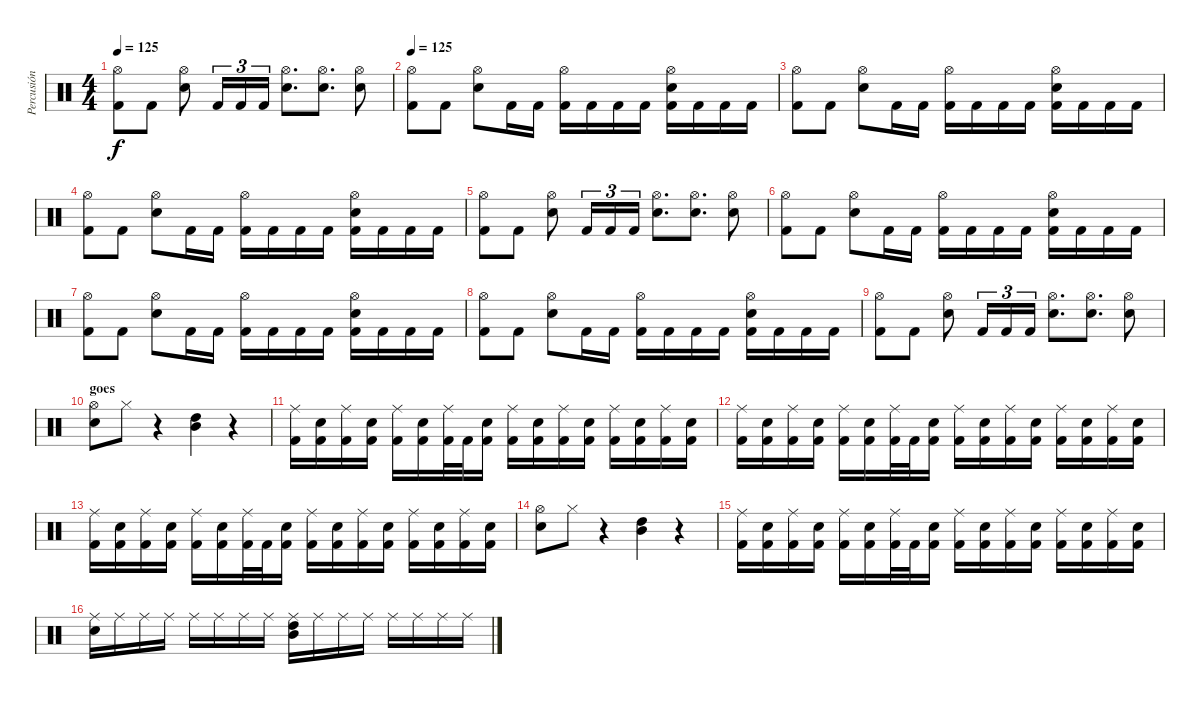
\track ("Percusión" "Percusión") {instrument percussion}
\staff {score}
\articulation defaults
\ts (4 4)
\tempo 125
\clef neutral
\ks c
("Hi-Hat (open)" "Kick (hit) 2").8{dy f} "Kick (hit) 2".8 ("Hi-Hat (open)" "Electric Snare (hit)").8 "Kick (hit) 2".16{tu (3 2)} "Kick (hit) 2".16{tu (3 2)} "Kick (hit) 2".16{tu (3 2)} ("Hi-Hat (open)" "Electric Snare (hit)").8{d} ("Hi-Hat (open)" "Electric Snare (hit)").8{d} ("Hi-Hat (open)" "Electric Snare (hit)").8 |
\tempo 125
("Hi-Hat (open)" "Kick (hit) 2").8 "Kick (hit) 2".8 ("Hi-Hat (open)" "Electric Snare (hit)").8 "Kick (hit) 2".16 "Kick (hit) 2".16 ("Hi-Hat (open)" "Kick (hit) 2").16 "Kick (hit) 2".16 "Kick (hit) 2".16 "Kick (hit) 2".16 ("Hi-Hat (open)" "Electric Snare (hit)" "Kick (hit) 2").16 "Kick (hit) 2".16 "Kick (hit) 2".16 "Kick (hit) 2".16 |
("Hi-Hat (open)" "Kick (hit) 2").8 "Kick (hit) 2".8 ("Hi-Hat (open)" "Electric Snare (hit)").8 "Kick (hit) 2".16 "Kick (hit) 2".16 ("Hi-Hat (open)" "Kick (hit) 2").16 "Kick (hit) 2".16 "Kick (hit) 2".16 "Kick (hit) 2".16 ("Hi-Hat (open)" "Electric Snare (hit)" "Kick (hit) 2").16 "Kick (hit) 2".16 "Kick (hit) 2".16 "Kick (hit) 2".16 |
("Hi-Hat (open)" "Kick (hit) 2").8 "Kick (hit) 2".8 ("Hi-Hat (open)" "Electric Snare (hit)").8 "Kick (hit) 2".16 "Kick (hit) 2".16 ("Hi-Hat (open)" "Kick (hit) 2").16 "Kick (hit) 2".16 "Kick (hit) 2".16 "Kick (hit) 2".16 ("Hi-Hat (open)" "Electric Snare (hit)" "Kick (hit) 2").16 "Kick (hit) 2".16 "Kick (hit) 2".16 "Kick (hit) 2".16 |
("Hi-Hat (open)" "Kick (hit) 2").8 "Kick (hit) 2".8 ("Hi-Hat (open)" "Electric Snare (hit)").8 "Kick (hit) 2".16{tu (3 2)} "Kick (hit) 2".16{tu (3 2)} "Kick (hit) 2".16{tu (3 2)} ("Hi-Hat (open)" "Electric Snare (hit)").8{d} ("Hi-Hat (open)" "Electric Snare (hit)").8{d} ("Hi-Hat (open)" "Electric Snare (hit)").8 |
("Hi-Hat (open)" "Kick (hit) 2").8 "Kick (hit) 2".8 ("Hi-Hat (open)" "Electric Snare (hit)").8 "Kick (hit) 2".16 "Kick (hit) 2".16 ("Hi-Hat (open)" "Kick (hit) 2").16 "Kick (hit) 2".16 "Kick (hit) 2".16 "Kick (hit) 2".16 ("Hi-Hat (open)" "Electric Snare (hit)" "Kick (hit) 2").16 "Kick (hit) 2".16 "Kick (hit) 2".16 "Kick (hit) 2".16 |
("Hi-Hat (open)" "Kick (hit) 2").8 "Kick (hit) 2".8 ("Hi-Hat (open)" "Electric Snare (hit)").8 "Kick (hit) 2".16 "Kick (hit) 2".16 ("Hi-Hat (open)" "Kick (hit) 2").16 "Kick (hit) 2".16 "Kick (hit) 2".16 "Kick (hit) 2".16 ("Hi-Hat (open)" "Electric Snare (hit)" "Kick (hit) 2").16 "Kick (hit) 2".16 "Kick (hit) 2".16 "Kick (hit) 2".16 |
("Hi-Hat (open)" "Kick (hit) 2").8 "Kick (hit) 2".8 ("Hi-Hat (open)" "Electric Snare (hit)").8 "Kick (hit) 2".16 "Kick (hit) 2".16 ("Hi-Hat (open)" "Kick (hit) 2").16 "Kick (hit) 2".16 "Kick (hit) 2".16 "Kick (hit) 2".16 ("Hi-Hat (open)" "Electric Snare (hit)" "Kick (hit) 2").16 "Kick (hit) 2".16 "Kick (hit) 2".16 "Kick (hit) 2".16 |
("Hi-Hat (open)" "Kick (hit) 2").8 "Kick (hit) 2".8 ("Hi-Hat (open)" "Electric Snare (hit)").8 "Kick (hit) 2".16{tu (3 2)} "Kick (hit) 2".16{tu (3 2)} "Kick (hit) 2".16{tu (3 2)} ("Hi-Hat (open)" "Electric Snare (hit)").8{d} ("Hi-Hat (open)" "Electric Snare (hit)").8{d} ("Hi-Hat (open)" "Electric Snare (hit)").8 |
\section ("" "goes")
("Hi-Hat (open)" "Electric Snare (hit)").8 "Hi-Hat (closed)".8 r.4 ("Mid Tom (hit)" "High Tom (hit)").4 r.4 |
("Ride (middle)" "Kick (hit) 2").16 ("Electric Snare (hit)" "Kick (hit) 2").16 ("Ride (middle)" "Kick (hit) 2").16 ("Electric Snare (hit)" "Kick (hit) 2").16 ("Ride (middle)" "Kick (hit) 2").16 ("Electric Snare (hit)" "Kick (hit) 2").16 ("Ride (middle)" "Kick (hit) 2").32 "Kick (hit) 2".32 ("Electric Snare (hit)" "Kick (hit) 2").16 ("Ride (middle)" "Kick (hit) 2").16 ("Electric Snare (hit)" "Kick (hit) 2").16 ("Ride (middle)" "Kick (hit) 2").16 ("Electric Snare (hit)" "Kick (hit) 2").16 ("Ride (middle)" "Kick (hit) 2").16 ("Electric Snare (hit)" "Kick (hit) 2").16 ("Ride (middle)" "Kick (hit) 2").16 ("Electric Snare (hit)" "Kick (hit) 2").16 |
("Ride (middle)" "Kick (hit) 2").16 ("Electric Snare (hit)" "Kick (hit) 2").16 ("Ride (middle)" "Kick (hit) 2").16 ("Electric Snare (hit)" "Kick (hit) 2").16 ("Ride (middle)" "Kick (hit) 2").16 ("Electric Snare (hit)" "Kick (hit) 2").16 ("Ride (middle)" "Kick (hit) 2").32 "Kick (hit) 2".32 ("Electric Snare (hit)" "Kick (hit) 2").16 ("Ride (middle)" "Kick (hit) 2").16 ("Electric Snare (hit)" "Kick (hit) 2").16 ("Ride (middle)" "Kick (hit) 2").16 ("Electric Snare (hit)" "Kick (hit) 2").16 ("Ride (middle)" "Kick (hit) 2").16 ("Electric Snare (hit)" "Kick (hit) 2").16 ("Ride (middle)" "Kick (hit) 2").16 ("Electric Snare (hit)" "Kick (hit) 2").16 |
("Ride (middle)" "Kick (hit) 2").16 ("Electric Snare (hit)" "Kick (hit) 2").16 ("Ride (middle)" "Kick (hit) 2").16 ("Electric Snare (hit)" "Kick (hit) 2").16 ("Ride (middle)" "Kick (hit) 2").16 ("Electric Snare (hit)" "Kick (hit) 2").16 ("Ride (middle)" "Kick (hit) 2").32 "Kick (hit) 2".32 ("Electric Snare (hit)" "Kick (hit) 2").16 ("Ride (middle)" "Kick (hit) 2").16 ("Electric Snare (hit)" "Kick (hit) 2").16 ("Ride (middle)" "Kick (hit) 2").16 ("Electric Snare (hit)" "Kick (hit) 2").16 ("Ride (middle)" "Kick (hit) 2").16 ("Electric Snare (hit)" "Kick (hit) 2").16 ("Ride (middle)" "Kick (hit) 2").16 ("Electric Snare (hit)" "Kick (hit) 2").16 |
("Hi-Hat (open)" "Electric Snare (hit)").8 "Hi-Hat (closed)".8 r.4 ("Mid Tom (hit)" "High Tom (hit)").4 r.4 |
("Ride (middle)" "Kick (hit) 2").16 ("Electric Snare (hit)" "Kick (hit) 2").16 ("Ride (middle)" "Kick (hit) 2").16 ("Electric Snare (hit)" "Kick (hit) 2").16 ("Ride (middle)" "Kick (hit) 2").16 ("Electric Snare (hit)" "Kick (hit) 2").16 ("Ride (middle)" "Kick (hit) 2").32 "Kick (hit) 2".32 ("Electric Snare (hit)" "Kick (hit) 2").16 ("Ride (middle)" "Kick (hit) 2").16 ("Electric Snare (hit)" "Kick (hit) 2").16 ("Ride (middle)" "Kick (hit) 2").16 ("Electric Snare (hit)" "Kick (hit) 2").16 ("Ride (middle)" "Kick (hit) 2").16 ("Electric Snare (hit)" "Kick (hit) 2").16 ("Ride (middle)" "Kick (hit) 2").16 ("Electric Snare (hit)" "Kick (hit) 2").16 |
("Ride (middle)" "Electric Snare (hit)").16 "Ride (middle)".16 "Ride (middle)".16 "Ride (middle)".16 "Ride (middle)".16 "Ride (middle)".16 "Ride (middle)".16 "Ride (middle)".16 ("Ride (middle)" "Mid Tom (hit)" "High Tom (hit)").16 "Ride (middle)".16 "Ride (middle)".16 "Ride (middle)".16 "Ride (middle)".16 "Ride (middle)".16 "Ride (middle)".16 "Ride (middle)".16
